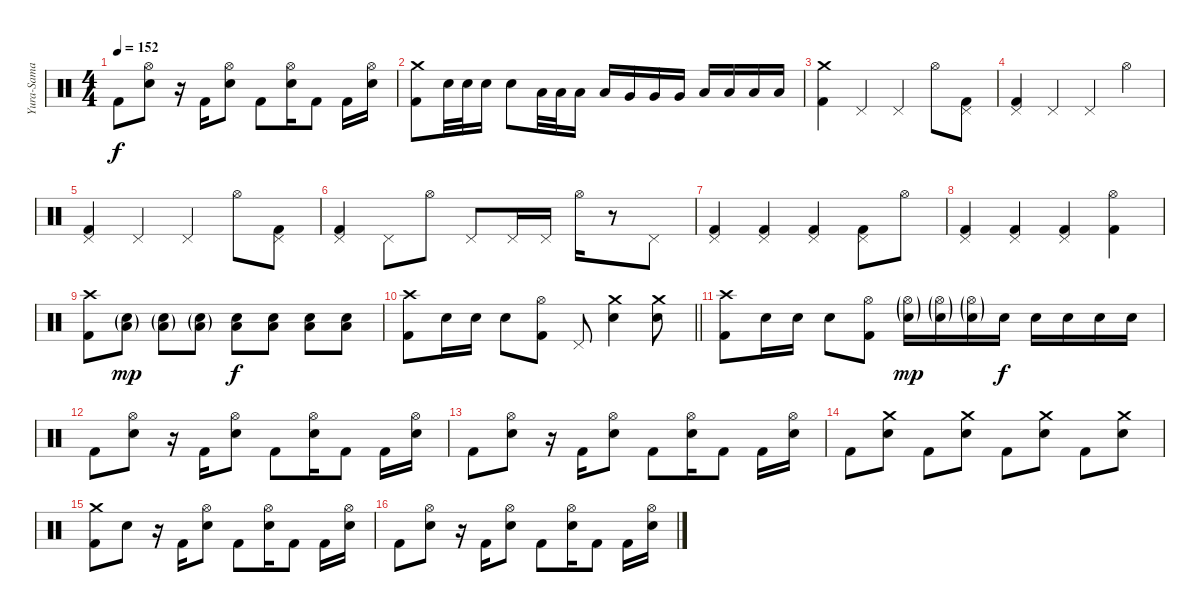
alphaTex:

\track ("Yura-Sama" "Yura-Sama") {instrument percussion}
\staff {score}
\articulation defaults
\ts (4 4)
\tempo 152
\clef neutral
\ks c "Kick (hit) 2".8{dy f}
("Electric Snare (hit)" "Hi-Hat (open)").8 r.16 "Kick (hit) 2".16 ("Electric Snare (hit)" "Hi-Hat (open)").8 "Kick (hit) 2".8 ("Electric Snare (hit)" "Hi-Hat (open)").16 "Kick (hit) 2".8 "Kick (hit) 2".16 ("Electric Snare (hit)" "Hi-Hat (open)").16 |
("Kick (hit) 2" "Crash medium (hit)").8 "Electric Snare (hit)".32 "Electric Snare (hit)".32 "Electric Snare (hit)".16 "Electric Snare (hit)".8 "Low Tom (hit)".32 "Low Tom (hit)".32 "Low Tom (hit)".16 "Low Tom (hit)".16 "Very Low Tom (hit)".16 "Very Low Tom (hit)".16 "Very Low Tom (hit)".16 "Low Floor Tom (hit)".16 "Low Floor Tom (hit)".16 "Low Floor Tom (hit)".16 "Low Floor Tom (hit)".16 |
("Crash medium (hit)" "Kick (hit) 2").4 "Pedal Hi-Hat (hit)".4 "Pedal Hi-Hat (hit)".4 "Hi-Hat (open)".8 ("Pedal Hi-Hat (hit)" "Kick (hit) 2").8 |
("Pedal Hi-Hat (hit)" "Kick (hit) 2").4 "Pedal Hi-Hat (hit)".4 "Pedal Hi-Hat (hit)".4 "Hi-Hat (open)".4 |
("Pedal Hi-Hat (hit)" "Kick (hit) 2").4 "Pedal Hi-Hat (hit)".4 "Pedal Hi-Hat (hit)".4 "Hi-Hat (open)".8 ("Pedal Hi-Hat (hit)" "Kick (hit) 2").8 |
("Pedal Hi-Hat (hit)" "Kick (hit) 2").4 "Pedal Hi-Hat (hit)".8 "Hi-Hat (open)".8 "Pedal Hi-Hat (hit)".8 "Pedal Hi-Hat (hit)".16 "Pedal Hi-Hat (hit)".16 "Hi-Hat (open)".16 r.8 "Pedal Hi-Hat (hit)".8 |
("Kick (hit) 2" "Pedal Hi-Hat (hit)").4 ("Kick (hit) 2" "Pedal Hi-Hat (hit)").4 ("Kick (hit) 2" "Pedal Hi-Hat (hit)").4 ("Kick (hit) 2" "Pedal Hi-Hat (hit)").8 "Hi-Hat (open)".8 |
("Kick (hit) 2" "Pedal Hi-Hat (hit)").4 ("Kick (hit) 2" "Pedal Hi-Hat (hit)").4 ("Kick (hit) 2" "Pedal Hi-Hat (hit)").4 ("Kick (hit) 2" "Hi-Hat (open)").4 |
("Kick (hit) 2" "Crash high (hit)").8 ("Electric Snare (hit)"{g} "Low Floor Tom (hit)"{g}).8{dy mp} ("Electric Snare (hit)"{g} "Low Floor Tom (hit)"{g}).8 ("Electric Snare (hit)"{g} "Low Floor Tom (hit)"{g}).8 ("Electric Snare (hit)" "Low Floor Tom (hit)").8{dy f} ("Electric Snare (hit)" "Low Floor Tom (hit)").8 ("Electric Snare (hit)" "Low Floor Tom (hit)").8 ("Electric Snare (hit)" "Low Floor Tom (hit)").8 |
\barLineRight lightlight
("Kick (hit) 2" "Crash high (hit)").8 "Electric Snare (hit)".16 "Electric Snare (hit)".16 "Electric Snare (hit)".8 ("Kick (hit) 2" "Hi-Hat (open)").8 "Pedal Hi-Hat (hit)".8 ("Crash medium (hit)" "Electric Snare (hit)").4 ("Crash medium (hit)" "Electric Snare (hit)").8 |
("Kick (hit) 2" "Crash high (hit)").8 "Electric Snare (hit)".16 "Electric Snare (hit)".16 "Electric Snare (hit)".8 ("Kick (hit) 2" "Hi-Hat (open)").8 ("Electric Snare (hit)"{g} "Hi-Hat (open)"{g}).16{dy mp} ("Electric Snare (hit)"{g} "Hi-Hat (open)"{g}).16 ("Electric Snare (hit)"{g} "Hi-Hat (open)"{g}).16 "Electric Snare (hit)".16{dy f} "Electric Snare (hit)".16 "Electric Snare (hit)".16 "Electric Snare (hit)".16 "Electric Snare (hit)".16 |
"Kick (hit) 2".8 ("Electric Snare (hit)" "Hi-Hat (open)").8 r.16 "Kick (hit) 2".16 ("Electric Snare (hit)" "Hi-Hat (open)").8 "Kick (hit) 2".8 ("Electric Snare (hit)" "Hi-Hat (open)").16 "Kick (hit) 2".8 "Kick (hit) 2".16 ("Electric Snare (hit)" "Hi-Hat (open)").16 |
"Kick (hit) 2".8 ("Electric Snare (hit)" "Hi-Hat (open)").8 r.16 "Kick (hit) 2".16 ("Electric Snare (hit)" "Hi-Hat (open)").8 "Kick (hit) 2".8 ("Electric Snare (hit)" "Hi-Hat (open)").16 "Kick (hit) 2".8 "Kick (hit) 2".16 ("Electric Snare (hit)" "Hi-Hat (open)").16 |
"Kick (hit) 2".8 ("Electric Snare (hit)" "Crash medium (hit)").8 "Kick (hit) 2".8 ("Electric Snare (hit)" "Crash medium (hit)").8 "Kick (hit) 2".8 ("Electric Snare (hit)" "Crash medium (hit)").8 "Kick (hit) 2".8 ("Electric Snare (hit)" "Crash medium (hit)").8 |
("Kick (hit) 2" "Crash medium (hit)").8 "Electric Snare (hit)".8 r.16 "Kick (hit) 2".16 ("Electric Snare (hit)" "Hi-Hat (open)").8 "Kick (hit) 2".8 ("Electric Snare (hit)" "Hi-Hat (open)").16 "Kick (hit) 2".8 "Kick (hit) 2".16 ("Electric Snare (hit)" "Hi-Hat (open)").16 |
"Kick (hit) 2".8 ("Electric Snare (hit)" "Hi-Hat (open)").8 r.16 "Kick (hit) 2".16 ("Electric Snare (hit)" "Hi-Hat (open)").8 "Kick (hit) 2".8 ("Electric Snare (hit)" "Hi-Hat (open)").16 "Kick (hit) 2".8 "Kick (hit) 2".16 ("Electric Snare (hit)" "Hi-Hat (open)").16
